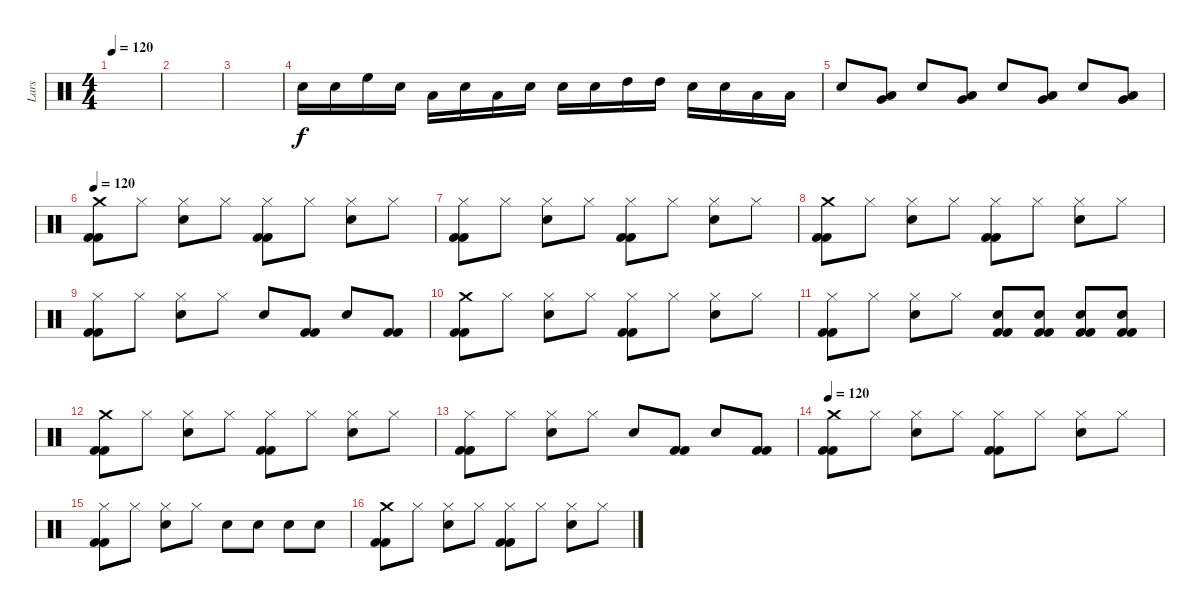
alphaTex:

\track ("Lars" "Lars") {instrument percussion}
\staff {score}
\articulation defaults
\ts (4 4)
\tempo 120
\clef neutral
\ks c
|
|
|
"Electric Snare (hit)".16 "Electric Snare (hit)".16 "High Floor Tom (hit)".16 "Electric Snare (hit)".16 "Low Tom (hit)".16 "Electric Snare (hit)".16 "Low Tom (hit)".16 "Electric Snare (hit)".16 "Electric Snare (hit)".16 "Electric Snare (hit)".16 "High Tom (hit)".16 "High Tom (hit)".16 "Electric Snare (hit)".16 "Electric Snare (hit)".16 "Low Tom (hit)".16 "Low Tom (hit)".16 |
"Electric Snare (hit)".8 ("Very Low Tom (hit)" "Low Tom (hit)").8 "Electric Snare (hit)".8 ("Very Low Tom (hit)" "Low Tom (hit)").8 "Electric Snare (hit)".8 ("Low Tom (hit)" "Very Low Tom (hit)").8 "Electric Snare (hit)".8 ("Very Low Tom (hit)" "Low Tom (hit)").8 |
\tempo 120
("Kick (hit) 2" "Kick (hit) 2" "Crash medium (hit)").8 "Hi-Hat (closed)".8 ("Hi-Hat (closed)" "Electric Snare (hit)").8 "Hi-Hat (closed)".8 ("Hi-Hat (closed)" "Kick (hit) 2" "Kick (hit) 2").8 "Hi-Hat (closed)".8 ("Electric Snare (hit)" "Hi-Hat (closed)").8 "Hi-Hat (closed)".8 |
("Kick (hit) 2" "Kick (hit) 2" "Hi-Hat (closed)").8 "Hi-Hat (closed)".8 ("Hi-Hat (closed)" "Electric Snare (hit)").8 "Hi-Hat (closed)".8 ("Hi-Hat (closed)" "Kick (hit) 2" "Kick (hit) 2").8 "Hi-Hat (closed)".8 ("Electric Snare (hit)" "Hi-Hat (closed)").8 "Hi-Hat (closed)".8 |
("Kick (hit) 2" "Kick (hit) 2" "Crash medium (hit)").8 "Hi-Hat (closed)".8 ("Hi-Hat (closed)" "Electric Snare (hit)").8 "Hi-Hat (closed)".8 ("Hi-Hat (closed)" "Kick (hit) 2" "Kick (hit) 2").8 "Hi-Hat (closed)".8 ("Electric Snare (hit)" "Hi-Hat (closed)").8 "Hi-Hat (closed)".8 |
("Kick (hit) 2" "Kick (hit) 2" "Hi-Hat (closed)").8 "Hi-Hat (closed)".8 ("Hi-Hat (closed)" "Electric Snare (hit)").8 "Hi-Hat (closed)".8 "Electric Snare (hit)".8 ("Kick (hit) 2" "Kick (hit) 2").8 "Electric Snare (hit)".8 ("Kick (hit) 2" "Kick (hit) 2").8 |
("Kick (hit) 2" "Kick (hit) 2" "Crash medium (hit)").8 "Hi-Hat (closed)".8 ("Hi-Hat (closed)" "Electric Snare (hit)").8 "Hi-Hat (closed)".8 ("Hi-Hat (closed)" "Kick (hit) 2" "Kick (hit) 2").8 "Hi-Hat (closed)".8 ("Electric Snare (hit)" "Hi-Hat (closed)").8 "Hi-Hat (closed)".8 |
("Kick (hit) 2" "Kick (hit) 2" "Hi-Hat (closed)").8 "Hi-Hat (closed)".8 ("Hi-Hat (closed)" "Electric Snare (hit)").8 "Hi-Hat (closed)".8 ("Electric Snare (hit)" "Kick (hit) 2" "Kick (hit) 2").8 ("Electric Snare (hit)" "Kick (hit) 2" "Kick (hit) 2").8 ("Kick (hit) 2" "Kick (hit) 2" "Electric Snare (hit)").8 ("Electric Snare (hit)" "Kick (hit) 2" "Kick (hit) 2").8 |
("Kick (hit) 2" "Kick (hit) 2" "Crash medium (hit)").8 "Hi-Hat (closed)".8 ("Hi-Hat (closed)" "Electric Snare (hit)").8 "Hi-Hat (closed)".8 ("Hi-Hat (closed)" "Kick (hit) 2" "Kick (hit) 2").8 "Hi-Hat (closed)".8 ("Electric Snare (hit)" "Hi-Hat (closed)").8 "Hi-Hat (closed)".8 |
("Kick (hit) 2" "Kick (hit) 2" "Hi-Hat (closed)").8 "Hi-Hat (closed)".8 ("Hi-Hat (closed)" "Electric Snare (hit)").8 "Hi-Hat (closed)".8 "Electric Snare (hit)".8 ("Kick (hit) 2" "Kick (hit) 2").8 "Electric Snare (hit)".8 ("Kick (hit) 2" "Kick (hit) 2").8 |
\tempo 120
("Kick (hit) 2" "Kick (hit) 2" "Crash medium (hit)").8 "Hi-Hat (closed)".8 ("Hi-Hat (closed)" "Electric Snare (hit)").8 "Hi-Hat (closed)".8 ("Hi-Hat (closed)" "Kick (hit) 2" "Kick (hit) 2").8 "Hi-Hat (closed)".8 ("Electric Snare (hit)" "Hi-Hat (closed)").8 "Hi-Hat (closed)".8 |
("Kick (hit) 2" "Kick (hit) 2" "Hi-Hat (closed)").8 "Hi-Hat (closed)".8 ("Hi-Hat (closed)" "Electric Snare (hit)").8 "Hi-Hat (closed)".8 "Electric Snare (hit)".8 "Electric Snare (hit)".8 "Electric Snare (hit)".8 "Electric Snare (hit)".8 |
("Kick (hit) 2" "Kick (hit) 2" "Crash medium (hit)").8 "Hi-Hat (closed)".8 ("Hi-Hat (closed)" "Electric Snare (hit)").8 "Hi-Hat (closed)".8 ("Hi-Hat (closed)" "Kick (hit) 2" "Kick (hit) 2").8 "Hi-Hat (closed)".8 ("Electric Snare (hit)" "Hi-Hat (closed)").8 "Hi-Hat (closed)".8
